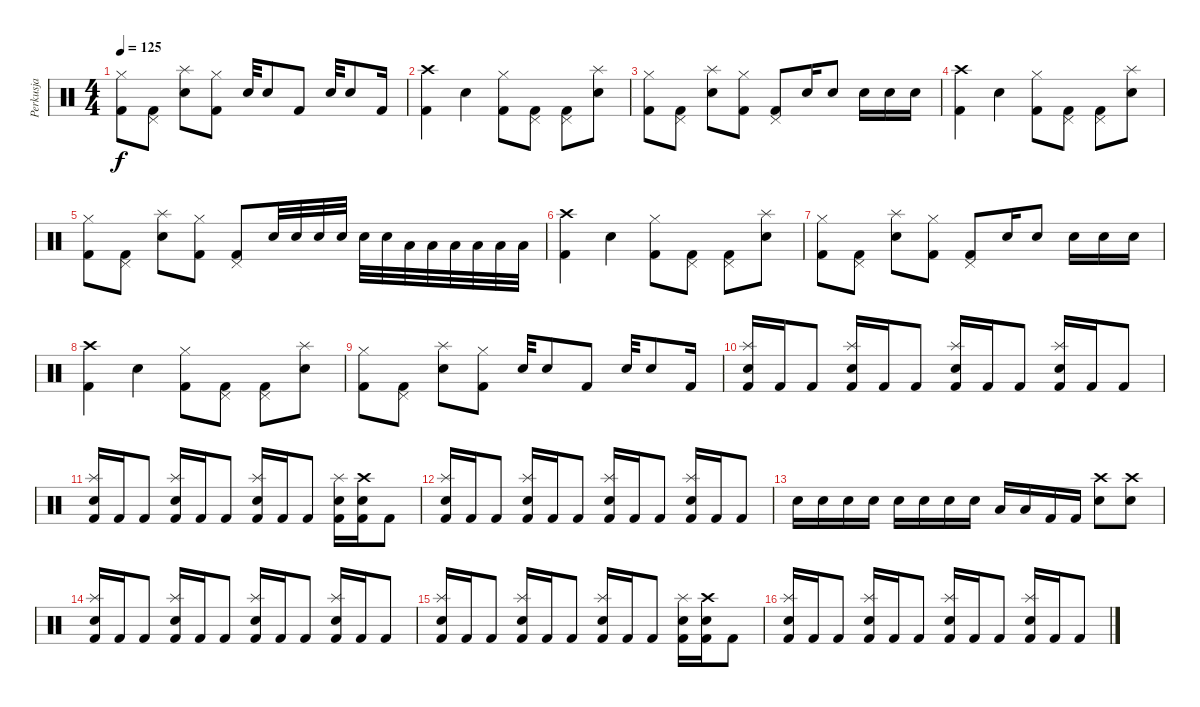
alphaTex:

\track ("Perkusja" "Perkusja") {instrument percussion}
\staff {score}
\articulation defaults
\ts (4 4)
\tempo 125
\clef neutral
\ks c
("Hi-Hat (closed)" "Kick (hit) 2").8{dy f} ("Pedal Hi-Hat (hit)" "Kick (hit) 2").8 ("Splash (hit)" "Snare (hit) 2").8 ("Hi-Hat (closed)" "Kick (hit) 2").8 "Snare (hit) 2".32 "Snare (hit) 2".8 "Kick (hit) 2".8 "Snare (hit) 2".32 "Snare (hit) 2".8 "Kick (hit) 2".16 |
("Crash high (hit)" "Kick (hit) 2").4 "Snare (hit) 2".4 ("Hi-Hat (closed)" "Kick (hit) 2").8 ("Pedal Hi-Hat (hit)" "Kick (hit) 2").8 ("Pedal Hi-Hat (hit)" "Kick (hit) 2").8 ("Splash (hit)" "Snare (hit) 2").8 |
("Hi-Hat (closed)" "Kick (hit) 2").8 ("Pedal Hi-Hat (hit)" "Kick (hit) 2").8 ("Splash (hit)" "Snare (hit) 2").8 ("Hi-Hat (closed)" "Kick (hit) 2").8 ("Pedal Hi-Hat (hit)" "Kick (hit) 2").8 "Snare (hit) 2".16 "Snare (hit) 2".8 "Snare (hit) 2".16 "Snare (hit) 2".16 "Snare (hit) 2".16 |
("Crash high (hit)" "Kick (hit) 2").4 "Snare (hit) 2".4 ("Hi-Hat (closed)" "Kick (hit) 2").8 ("Pedal Hi-Hat (hit)" "Kick (hit) 2").8 ("Pedal Hi-Hat (hit)" "Kick (hit) 2").8 ("Splash (hit)" "Snare (hit) 2").8 |
("Hi-Hat (closed)" "Kick (hit) 2").8 ("Pedal Hi-Hat (hit)" "Kick (hit) 2").8 ("Splash (hit)" "Snare (hit) 2").8 ("Hi-Hat (closed)" "Kick (hit) 2").8 ("Pedal Hi-Hat (hit)" "Kick (hit) 2").8 "Snare (hit) 2".32 "Snare (hit) 2".32 "Snare (hit) 2".32 "Snare (hit) 2".32 "Snare (hit) 2".32 "Snare (hit) 2".32 "Low Tom (hit)".32 "Low Tom (hit)".32 "Low Tom (hit)".32 "Low Tom (hit)".32 "Low Tom (hit)".32 "Low Tom (hit)".32 |
("Crash high (hit)" "Kick (hit) 2").4 "Snare (hit) 2".4 ("Hi-Hat (closed)" "Kick (hit) 2").8 ("Pedal Hi-Hat (hit)" "Kick (hit) 2").8 ("Pedal Hi-Hat (hit)" "Kick (hit) 2").8 ("Splash (hit)" "Snare (hit) 2").8 |
("Hi-Hat (closed)" "Kick (hit) 2").8 ("Pedal Hi-Hat (hit)" "Kick (hit) 2").8 ("Splash (hit)" "Snare (hit) 2").8 ("Hi-Hat (closed)" "Kick (hit) 2").8 ("Pedal Hi-Hat (hit)" "Kick (hit) 2").8 "Snare (hit) 2".16 "Snare (hit) 2".8 "Snare (hit) 2".16 "Snare (hit) 2".16 "Snare (hit) 2".16 |
("Crash high (hit)" "Kick (hit) 2").4 "Snare (hit) 2".4 ("Hi-Hat (closed)" "Kick (hit) 2").8 ("Pedal Hi-Hat (hit)" "Kick (hit) 2").8 ("Pedal Hi-Hat (hit)" "Kick (hit) 2").8 ("Splash (hit)" "Snare (hit) 2").8 |
("Hi-Hat (closed)" "Kick (hit) 2").8 ("Pedal Hi-Hat (hit)" "Kick (hit) 2").8 ("Splash (hit)" "Snare (hit) 2").8 ("Hi-Hat (closed)" "Kick (hit) 2").8 "Snare (hit) 2".32 "Snare (hit) 2".8 "Kick (hit) 2".8 "Snare (hit) 2".32 "Snare (hit) 2".8 "Kick (hit) 2".16 |
("Splash (hit)" "Snare (hit) 2" "Kick (hit) 2").16 "Kick (hit) 2".16 "Kick (hit) 2".8 ("Splash (hit)" "Snare (hit) 2" "Kick (hit) 2").16 "Kick (hit) 2".16 "Kick (hit) 2".8 ("Splash (hit)" "Snare (hit) 2" "Kick (hit) 2").16 "Kick (hit) 2".16 "Kick (hit) 2".8 ("Splash (hit)" "Snare (hit) 2" "Kick (hit) 2").16 "Kick (hit) 2".16 "Kick (hit) 2".8 |
("Splash (hit)" "Snare (hit) 2" "Kick (hit) 2").16 "Kick (hit) 2".16 "Kick (hit) 2".8 ("Splash (hit)" "Snare (hit) 2" "Kick (hit) 2").16 "Kick (hit) 2".16 "Kick (hit) 2".8 ("Splash (hit)" "Snare (hit) 2" "Kick (hit) 2").16 "Kick (hit) 2".16 "Kick (hit) 2".8 ("Splash (hit)" "Snare (hit) 2" "Kick (hit) 2").16 ("Crash high (hit)" "Snare (hit) 2" "Kick (hit) 2").16 "Kick (hit) 2".8 |
("Splash (hit)" "Snare (hit) 2" "Kick (hit) 2").16 "Kick (hit) 2".16 "Kick (hit) 2".8 ("Splash (hit)" "Snare (hit) 2" "Kick (hit) 2").16 "Kick (hit) 2".16 "Kick (hit) 2".8 ("Splash (hit)" "Snare (hit) 2" "Kick (hit) 2").16 "Kick (hit) 2".16 "Kick (hit) 2".8 ("Splash (hit)" "Snare (hit) 2" "Kick (hit) 2").16 "Kick (hit) 2".16 "Kick (hit) 2".8 |
"Snare (hit) 2".16 "Snare (hit) 2".16 "Snare (hit) 2".16 "Snare (hit) 2".16 "Snare (hit) 2".16 "Snare (hit) 2".16 "Snare (hit) 2".16 "Snare (hit) 2".16 "Low Tom (hit)".16 "Low Tom (hit)".16 "Kick (hit) 2".16 "Kick (hit) 2".16 ("Crash high (hit)" "Snare (hit) 2").8 ("Crash high (hit)" "Snare (hit) 2").8 |
("Splash (hit)" "Snare (hit) 2" "Kick (hit) 2").16 "Kick (hit) 2".16 "Kick (hit) 2".8 ("Splash (hit)" "Snare (hit) 2" "Kick (hit) 2").16 "Kick (hit) 2".16 "Kick (hit) 2".8 ("Splash (hit)" "Snare (hit) 2" "Kick (hit) 2").16 "Kick (hit) 2".16 "Kick (hit) 2".8 ("Splash (hit)" "Snare (hit) 2" "Kick (hit) 2").16 "Kick (hit) 2".16 "Kick (hit) 2".8 |
("Splash (hit)" "Snare (hit) 2" "Kick (hit) 2").16 "Kick (hit) 2".16 "Kick (hit) 2".8 ("Splash (hit)" "Snare (hit) 2" "Kick (hit) 2").16 "Kick (hit) 2".16 "Kick (hit) 2".8 ("Splash (hit)" "Snare (hit) 2" "Kick (hit) 2").16 "Kick (hit) 2".16 "Kick (hit) 2".8 ("Splash (hit)" "Snare (hit) 2" "Kick (hit) 2").16 ("Crash high (hit)" "Snare (hit) 2" "Kick (hit) 2").16 "Kick (hit) 2".8 |
("Splash (hit)" "Snare (hit) 2" "Kick (hit) 2").16 "Kick (hit) 2".16 "Kick (hit) 2".8 ("Splash (hit)" "Snare (hit) 2" "Kick (hit) 2").16 "Kick (hit) 2".16 "Kick (hit) 2".8 ("Splash (hit)" "Snare (hit) 2" "Kick (hit) 2").16 "Kick (hit) 2".16 "Kick (hit) 2".8 ("Splash (hit)" "Snare (hit) 2" "Kick (hit) 2").16 "Kick (hit) 2".16 "Kick (hit) 2".8
